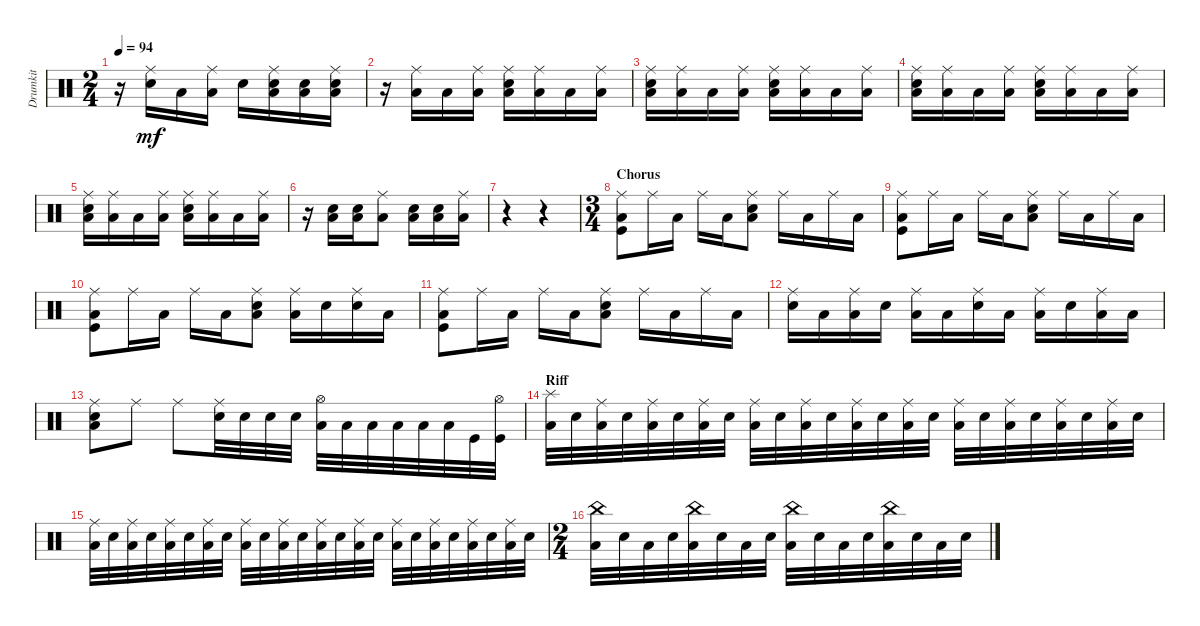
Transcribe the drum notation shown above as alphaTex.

\track ("Drumkit" "Drumkit") {instrument percussion}
\staff {score}
\articulation defaults
\ts (2 4)
\tempo 94
\clef neutral
\ks c
r.16{dy mf} ("Snare (hit) 2" "Ride (middle)").16 "Low Tom (hit)".16 ("Low Tom (hit)" "Ride (middle)").16 "Snare (hit) 2".16 ("Low Tom (hit)" "Snare (hit) 2" "Ride (middle)").16 ("Low Tom (hit)" "Snare (hit) 2").16 ("Snare (hit) 2" "Low Tom (hit)" "Ride (middle)").16 |
r.16 ("Ride (middle)" "Low Tom (hit)").16 "Low Tom (hit)".16 ("Ride (middle)" "Low Tom (hit)").16 ("Ride (middle)" "Snare (hit) 2" "Low Tom (hit)").16 ("Ride (middle)" "Low Tom (hit)").16 "Low Tom (hit)".16 ("Ride (middle)" "Low Tom (hit)").16 |
("Ride (middle)" "Snare (hit) 2" "Low Tom (hit)").16 ("Ride (middle)" "Low Tom (hit)").16 "Low Tom (hit)".16 ("Ride (middle)" "Low Tom (hit)").16 ("Ride (middle)" "Snare (hit) 2" "Low Tom (hit)").16 ("Ride (middle)" "Low Tom (hit)").16 "Low Tom (hit)".16 ("Ride (middle)" "Low Tom (hit)").16 |
("Snare (hit) 2" "Low Tom (hit)" "Ride (middle)").16 ("Ride (middle)" "Low Tom (hit)").16 "Low Tom (hit)".16 ("Ride (middle)" "Low Tom (hit)").16 ("Ride (middle)" "Snare (hit) 2" "Low Tom (hit)").16 ("Ride (middle)" "Low Tom (hit)").16 "Low Tom (hit)".16 ("Ride (middle)" "Low Tom (hit)").16 |
("Ride (middle)" "Snare (hit) 2" "Low Tom (hit)").16 ("Ride (middle)" "Low Tom (hit)").16 "Low Tom (hit)".16 ("Ride (middle)" "Low Tom (hit)").16 ("Ride (middle)" "Snare (hit) 2" "Low Tom (hit)").16 ("Ride (middle)" "Low Tom (hit)").16 "Low Tom (hit)".16 ("Ride (middle)" "Low Tom (hit)").16 |
r.16 ("Snare (hit) 2" "Low Tom (hit)").16 ("Snare (hit) 2" "Low Tom (hit)").16 ("Low Tom (hit)" "Ride (middle)").8 ("Snare (hit) 2" "Low Tom (hit)").16 ("Snare (hit) 2" "Low Tom (hit)").16 ("Low Tom (hit)" "Ride (middle)").16 |
r.4 r.4 |
\ts (3 4)
\section ("" "Chorus")
("Ride (middle)" "Kick (hit)" "Low Tom (hit)").8 "Ride (middle)".16 "Low Tom (hit)".16 "Ride (middle)".16 "Low Tom (hit)".16 ("Ride (middle)" "Snare (hit) 2" "Low Floor Tom (hit)").8 "Ride (middle)".16 "Low Tom (hit)".16 "Ride (middle)".16 "Low Tom (hit)".16 |
("Ride (middle)" "Kick (hit)" "Low Tom (hit)").8 "Ride (middle)".16 "Low Tom (hit)".16 "Ride (middle)".16 "Low Tom (hit)".16 ("Ride (middle)" "Snare (hit) 2" "Low Floor Tom (hit)").8 "Ride (middle)".16 "Low Tom (hit)".16 "Ride (middle)".16 "Low Tom (hit)".16 |
("Ride (middle)" "Kick (hit)" "Low Tom (hit)").8 "Ride (middle)".16 "Low Tom (hit)".16 "Ride (middle)".16 "Low Tom (hit)".16 ("Ride (middle)" "Snare (hit) 2" "Low Floor Tom (hit)").8 ("Ride (middle)" "Low Tom (hit)").16 "Snare (hit) 2".16 ("Ride (middle)" "Snare (hit) 2").16 "Low Tom (hit)".16 |
("Ride (middle)" "Kick (hit)" "Low Tom (hit)").8 "Ride (middle)".16 "Low Tom (hit)".16 "Ride (middle)".16 "Low Tom (hit)".16 ("Ride (middle)" "Snare (hit) 2" "Low Floor Tom (hit)").8 "Ride (middle)".16 "Low Tom (hit)".16 "Ride (middle)".16 "Low Tom (hit)".16 |
("Snare (hit) 2" "Ride (middle)").16 "Low Tom (hit)".16 ("Low Tom (hit)" "Ride (middle)").16 "Snare (hit) 2".16 ("Low Tom (hit)" "Ride (middle)").16 "Low Tom (hit)".16 ("Snare (hit) 2" "Ride (middle)").16 "Low Tom (hit)".16 ("Low Tom (hit)" "Ride (middle)").16 "Snare (hit) 2".16 ("Low Tom (hit)" "Ride (middle)").16 "Low Tom (hit)".16 |
("Ride (middle)" "Snare (hit) 2" "Low Floor Tom (hit)").8 "Ride (middle)".8 "Ride (middle)".8 ("Snare (hit) 2" "Ride (middle)").32 "Snare (hit) 2".32 "Snare (hit) 2".32 "Snare (hit) 2".32 ("Low Tom (hit)" "Hi-Hat (open)").32 "Low Tom (hit)".32 "Low Tom (hit)".32 "Low Tom (hit)".32 "Low Floor Tom (hit)".32 "Low Floor Tom (hit)".32 "Kick (hit)".32 ("Kick (hit)" "Hi-Hat (open)").32 |
\section ("" "Riff")
("Low Tom (hit)" "Splash (hit)").32 "Snare (hit) 2".32 ("Low Tom (hit)" "Ride (middle)").32 "Snare (hit) 2".32 ("Low Tom (hit)" "Ride (middle)").32 "Snare (hit) 2".32 ("Low Tom (hit)" "Ride (middle)").32 "Snare (hit) 2".32 ("Low Tom (hit)" "Ride (middle)").32 "Snare (hit) 2".32 ("Low Tom (hit)" "Ride (middle)").32 "Snare (hit) 2".32 ("Low Tom (hit)" "Ride (middle)").32 "Snare (hit) 2".32 ("Low Tom (hit)" "Ride (middle)").32 "Snare (hit) 2".32 ("Low Tom (hit)" "Ride (middle)").32 "Snare (hit) 2".32 ("Low Tom (hit)" "Ride (middle)").32 "Snare (hit) 2".32 ("Low Tom (hit)" "Ride (middle)").32 "Snare (hit) 2".32 ("Low Tom (hit)" "Ride (middle)").32 "Snare (hit) 2".32 |
("Low Tom (hit)" "Ride (middle)").32 "Snare (hit) 2".32 ("Low Tom (hit)" "Ride (middle)").32 "Snare (hit) 2".32 ("Low Tom (hit)" "Ride (middle)").32 "Snare (hit) 2".32 ("Low Tom (hit)" "Ride (middle)").32 "Snare (hit) 2".32 ("Low Tom (hit)" "Ride (middle)").32 "Snare (hit) 2".32 ("Low Tom (hit)" "Ride (middle)").32 "Snare (hit) 2".32 ("Low Tom (hit)" "Ride (middle)").32 "Snare (hit) 2".32 ("Low Tom (hit)" "Ride (middle)").32 "Snare (hit) 2".32 ("Low Tom (hit)" "Ride (middle)").32 "Snare (hit) 2".32 ("Low Tom (hit)" "Ride (middle)").32 "Snare (hit) 2".32 ("Low Tom (hit)" "Ride (middle)").32 "Snare (hit) 2".32 ("Low Tom (hit)" "Ride (middle)").32 "Snare (hit) 2".32 |
\ts (2 4)
("Low Tom (hit)" "China (hit)").32 "Snare (hit) 2".32 "Low Tom (hit)".32 "Snare (hit) 2".32 ("Low Tom (hit)" "China (hit)").32 "Snare (hit) 2".32 "Low Tom (hit)".32 "Snare (hit) 2".32 ("Low Tom (hit)" "China (hit)").32 "Snare (hit) 2".32 "Low Tom (hit)".32 "Snare (hit) 2".32 ("Low Tom (hit)" "China (hit)").32 "Snare (hit) 2".32 "Low Tom (hit)".32 "Snare (hit) 2".32
